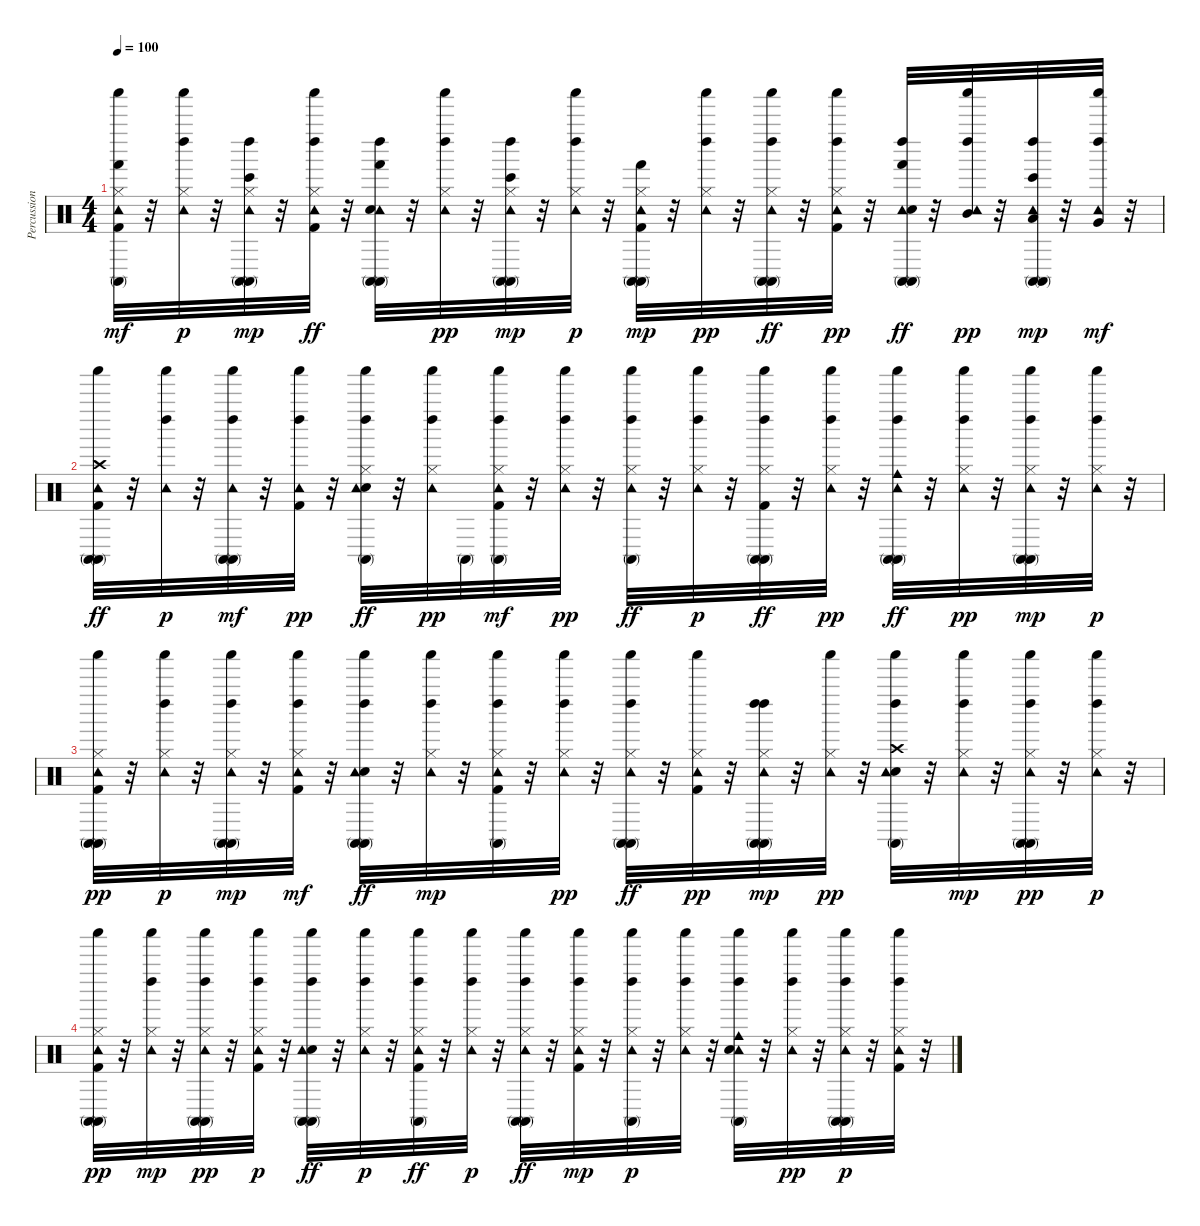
\track ("Percussions" "Percussion") {instrument percussion}
\staff {score}
\articulation defaults
\ts (4 4)
\tempo 100
\clef neutral
\ks c
("Tambourine (hit)" "Conga high (mute)" "Kick (hit) 2" "Hi-Hat (closed)" "Shaker (hit)" "Hand (hit)").32{dy mf} r.32 ("Tambourine (hit)" "Hi-Hat (closed)" "Left Maraca (hit)" "Shaker (hit)").32{dy p} r.32 ("Tambourine (hit)" "Conga high (mute)" "Bongo High (hit)" "Hi-Hat (closed)" "Conga high (mute)" "Left Maraca (hit)").32{dy mp} r.32 ("Tambourine (hit)" "Kick (hit) 2" "Hi-Hat (closed)" "Shaker (hit)" "Left Maraca (hit)").32{dy ff} r.32 ("Conga high (mute)" "Tambourine (hit)" "Electric Snare (hit)" "Conga high (mute)" "Left Maraca (hit)" "Hand (hit)").32 r.32 ("Tambourine (hit)" "Hi-Hat (closed)" "Left Maraca (hit)" "Shaker (hit)").32{dy pp} r.32 ("Conga high (mute)" "Tambourine (hit)" "Left Maraca (hit)" "Hi-Hat (closed)" "Bongo High (hit)" "Conga high (mute)").32{dy mp} r.32 ("Tambourine (hit)" "Hi-Hat (closed)" "Left Maraca (hit)" "Shaker (hit)").32{dy p} r.32 ("Conga high (mute)" "Tambourine (hit)" "Conga high (mute)" "Hi-Hat (closed)" "Kick (hit) 2" "Hand (hit)").32{dy mp} r.32 ("Tambourine (hit)" "Left Maraca (hit)" "Hi-Hat (closed)" "Shaker (hit)").32{dy pp} r.32 ("Conga high (mute)" "Tambourine (hit)" "Hi-Hat (closed)" "Conga high (mute)" "Left Maraca (hit)" "Shaker (hit)").32{dy ff} r.32 ("Hi-Hat (closed)" "Tambourine (hit)" "Left Maraca (hit)" "Kick (hit) 2" "Shaker (hit)").32{dy pp} r.32 ("Conga high (mute)" "Tambourine (hit)" "Conga high (mute)" "Electric Snare (hit)" "Hand (hit)" "Left Maraca (hit)").32{dy ff} r.32 ("Mid Tom (hit)" "Tambourine (hit)" "Left Maraca (hit)" "Shaker (hit)").32{dy pp} r.32 ("Conga high (mute)" "Conga high (mute)" "Low Tom (hit)" "Tambourine (hit)" "Left Maraca (hit)" "Bongo High (hit)").32{dy mp} r.32 ("Very Low Tom (hit)" "Tambourine (hit)" "Shaker (hit)" "Left Maraca (hit)").32{dy mf} r.32 |
("Conga high (mute)" "Conga high (mute)" "Kick (hit) 2" "Tambourine (hit)" "Crash high (hit)" "Shaker (hit)").32{dy ff} r.32 ("Tambourine (hit)" "Left Maraca (hit)" "Shaker (hit)").32{dy p} r.32 ("Conga high (mute)" "Conga high (mute)" "Left Maraca (hit)" "Shaker (hit)" "Tambourine (hit)").32{dy mf} r.32 ("Kick (hit) 2" "Tambourine (hit)" "Left Maraca (hit)" "Shaker (hit)").32{dy pp} r.32 ("Conga high (mute)" "Hi-Hat (closed)" "Electric Snare (hit)" "Tambourine (hit)" "Shaker (hit)" "Left Maraca (hit)").32{dy ff} r.32 ("Hi-Hat (closed)" "Shaker (hit)" "Left Maraca (hit)" "Tambourine (hit)").32{dy pp} "Conga high (mute)".32 ("Conga high (mute)" "Left Maraca (hit)" "Kick (hit) 2" "Hi-Hat (closed)" "Tambourine (hit)" "Shaker (hit)").32{dy mf} r.32 ("Hi-Hat (closed)" "Left Maraca (hit)" "Shaker (hit)" "Tambourine (hit)").32{dy pp} r.32 ("Conga high (mute)" "Left Maraca (hit)" "Hi-Hat (closed)" "Tambourine (hit)" "Shaker (hit)").32{dy ff} r.32 ("Hi-Hat (closed)" "Left Maraca (hit)" "Tambourine (hit)" "Shaker (hit)").32{dy p} r.32 ("Conga high (mute)" "Conga high (mute)" "Left Maraca (hit)" "Kick (hit) 2" "Hi-Hat (closed)" "Shaker (hit)").32{dy ff} r.32 ("Hi-Hat (closed)" "Left Maraca (hit)" "Tambourine (hit)" "Shaker (hit)").32{dy pp} r.32 ("Conga high (mute)" "Cowbell medium (hit)" "Tambourine (hit)" "Conga high (mute)" "Left Maraca (hit)" "Shaker (hit)").32{dy ff} r.32 ("Hi-Hat (closed)" "Shaker (hit)" "Left Maraca (hit)" "Tambourine (hit)").32{dy pp} r.32 ("Conga high (mute)" "Left Maraca (hit)" "Hi-Hat (closed)" "Shaker (hit)" "Tambourine (hit)" "Conga high (mute)").32{dy mp} r.32 ("Hi-Hat (closed)" "Tambourine (hit)" "Shaker (hit)" "Left Maraca (hit)").32{dy p} r.32 |
("Conga high (mute)" "Kick (hit) 2" "Hi-Hat (closed)" "Conga high (mute)" "Shaker (hit)" "Tambourine (hit)").32{dy pp} r.32 ("Hi-Hat (closed)" "Tambourine (hit)" "Shaker (hit)" "Left Maraca (hit)").32{dy p} r.32 ("Conga high (mute)" "Left Maraca (hit)" "Hi-Hat (closed)" "Shaker (hit)" "Tambourine (hit)" "Conga high (mute)").32{dy mp} r.32 ("Kick (hit) 2" "Hi-Hat (closed)" "Tambourine (hit)" "Shaker (hit)" "Left Maraca (hit)").32{dy mf} r.32 ("Conga high (mute)" "Electric Snare (hit)" "Tambourine (hit)" "Conga high (mute)" "Shaker (hit)" "Left Maraca (hit)").32{dy ff} r.32 ("Hi-Hat (closed)" "Shaker (hit)" "Tambourine (hit)" "Left Maraca (hit)").32{dy mp} r.32 ("Conga high (mute)" "Kick (hit) 2" "Hi-Hat (closed)" "Left Maraca (hit)" "Shaker (hit)" "Tambourine (hit)").32 r.32 ("Hi-Hat (closed)" "Tambourine (hit)" "Shaker (hit)" "Left Maraca (hit)").32{dy pp} r.32 ("Conga high (mute)" "Conga high (mute)" "Hi-Hat (closed)" "Shaker (hit)" "Tambourine (hit)" "Left Maraca (hit)").32{dy ff} r.32 ("Kick (hit) 2" "Hi-Hat (closed)" "Shaker (hit)" "Tambourine (hit)").32{dy pp} r.32 ("Conga high (mute)" "Left Maraca (hit)" "Hi-Hat (closed)" "Tambourine (hit)" "Left Maraca (hit)" "Conga high (mute)").32{dy mp} r.32 ("Hi-Hat (closed)" "Tambourine (hit)" "Shaker (hit)").32{dy pp} r.32 ("Conga high (mute)" "Left Maraca (hit)" "Crash high (hit)" "Electric Snare (hit)" "Shaker (hit)" "Tambourine (hit)").32 r.32 ("Hi-Hat (closed)" "Shaker (hit)" "Tambourine (hit)" "Left Maraca (hit)").32{dy mp} r.32 ("Conga high (mute)" "Conga high (mute)" "Hi-Hat (closed)" "Shaker (hit)" "Tambourine (hit)" "Left Maraca (hit)").32{dy pp} r.32 ("Hi-Hat (closed)" "Tambourine (hit)" "Shaker (hit)" "Left Maraca (hit)").32{dy p} r.32 |
("Conga high (mute)" "Kick (hit) 2" "Hi-Hat (closed)" "Conga high (mute)" "Shaker (hit)" "Tambourine (hit)").32{dy pp} r.32 ("Hi-Hat (closed)" "Tambourine (hit)" "Shaker (hit)" "Left Maraca (hit)").32{dy mp} r.32 ("Conga high (mute)" "Hi-Hat (closed)" "Tambourine (hit)" "Conga high (mute)" "Shaker (hit)" "Left Maraca (hit)").32{dy pp} r.32 ("Kick (hit) 2" "Hi-Hat (closed)" "Tambourine (hit)" "Shaker (hit)" "Left Maraca (hit)").32{dy p} r.32 ("Conga high (mute)" "Conga high (mute)" "Electric Snare (hit)" "Shaker (hit)" "Tambourine (hit)" "Left Maraca (hit)").32{dy ff} r.32 ("Hi-Hat (closed)" "Tambourine (hit)" "Shaker (hit)" "Left Maraca (hit)").32{dy p} r.32 ("Conga high (mute)" "Tambourine (hit)" "Left Maraca (hit)" "Kick (hit) 2" "Hi-Hat (closed)" "Shaker (hit)").32{dy ff} r.32 ("Hi-Hat (closed)" "Tambourine (hit)" "Left Maraca (hit)" "Shaker (hit)").32{dy p} r.32 ("Conga high (mute)" "Conga high (mute)" "Tambourine (hit)" "Hi-Hat (closed)" "Shaker (hit)" "Left Maraca (hit)").32{dy ff} r.32 ("Hi-Hat (closed)" "Kick (hit) 2" "Tambourine (hit)" "Shaker (hit)" "Left Maraca (hit)").32{dy mp} r.32 ("Left Maraca (hit)" "Shaker (hit)" "Hi-Hat (closed)" "Tambourine (hit)" "Conga high (mute)").32{dy p} r.32 ("Tambourine (hit)" "Hi-Hat (closed)" "Left Maraca (hit)" "Shaker (hit)").32 r.32 ("Tambourine (hit)" "Cowbell medium (hit)" "Shaker (hit)" "Electric Snare (hit)" "Left Maraca (hit)" "Conga high (mute)").32 r.32 ("Hi-Hat (closed)" "Tambourine (hit)" "Left Maraca (hit)" "Shaker (hit)").32{dy pp} r.32 ("Left Maraca (hit)" "Conga high (mute)" "Hi-Hat (closed)" "Tambourine (hit)" "Shaker (hit)" "Conga high (mute)").32{dy p} r.32 ("Kick (hit) 2" "Hi-Hat (closed)" "Left Maraca (hit)" "Tambourine (hit)" "Shaker (hit)").32 r.32
